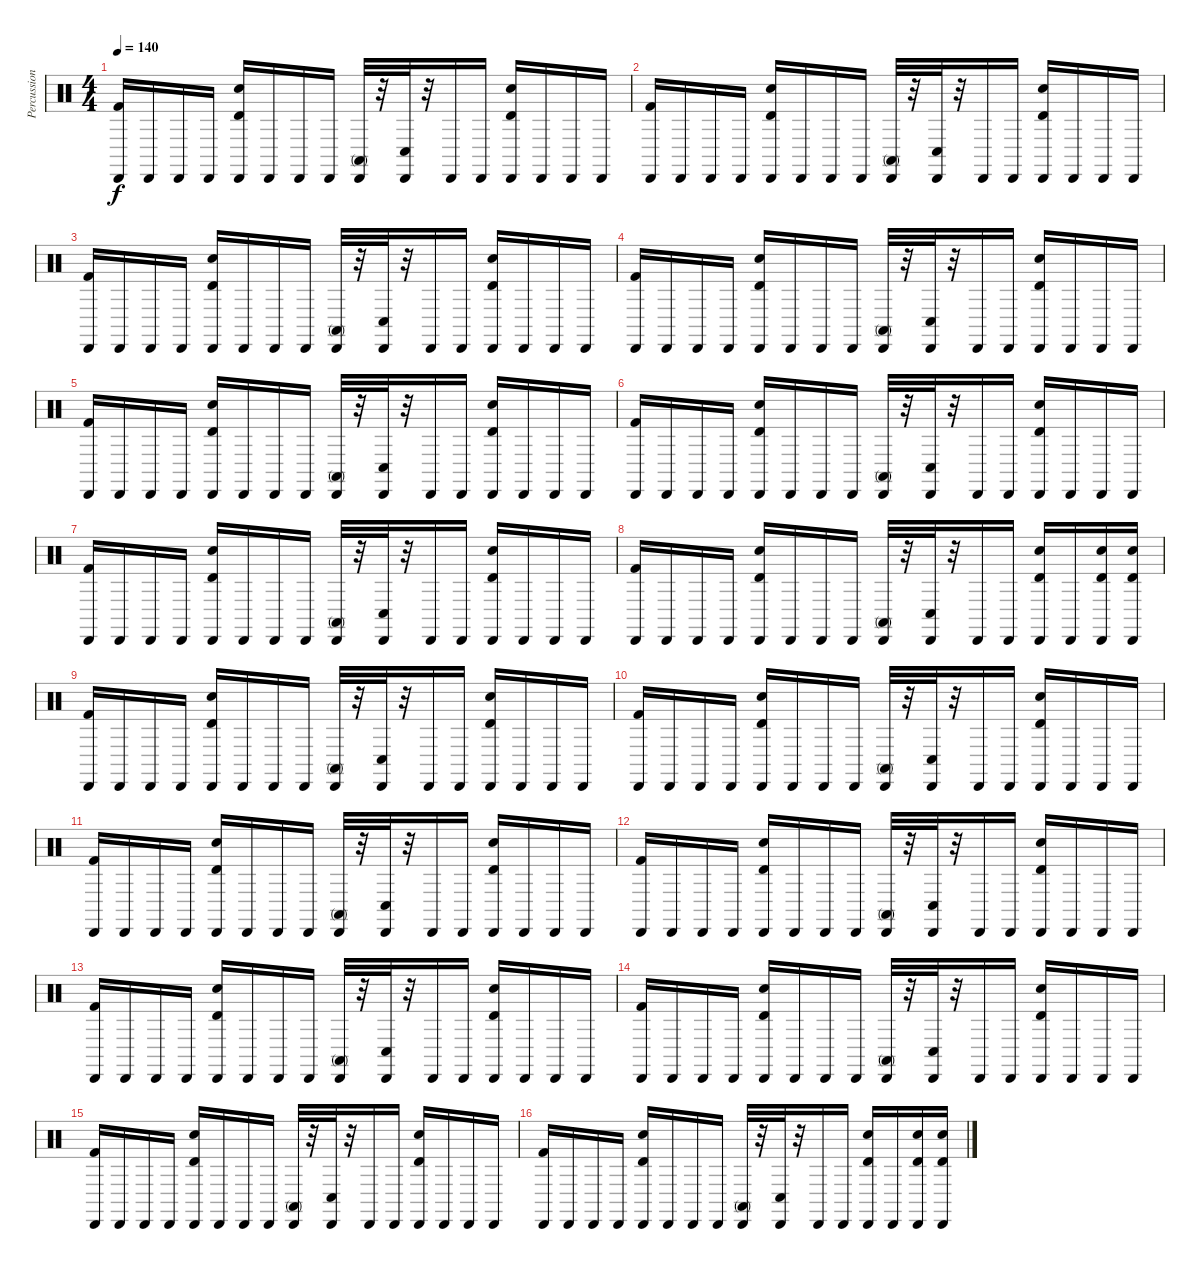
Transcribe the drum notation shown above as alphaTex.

\track ("Percussions" "Percussion") {instrument percussion}
\staff {score}
\articulation defaults
\ts (4 4)
\tempo 140
\clef neutral
\ks c
("Kick (hit) 2" "Cabasa (hit)").16{dy f} "Cabasa (hit)".16 "Cabasa (hit)".16 "Cabasa (hit)".16 ("Timbale high (hit)" "Electric Snare (hit)" "Cabasa (hit)").16 "Cabasa (hit)".16 "Cabasa (hit)".16 "Cabasa (hit)".16 ("Conga high (mute)" "Cabasa (hit)").32 r.32 ("Conga low (hit)" "Cabasa (hit)").32 r.32 "Cabasa (hit)".16 "Cabasa (hit)".16 ("Electric Snare (hit)" "Timbale high (hit)" "Cabasa (hit)").16 "Cabasa (hit)".16 "Cabasa (hit)".16 "Cabasa (hit)".16 |
("Kick (hit) 2" "Cabasa (hit)").16 "Cabasa (hit)".16 "Cabasa (hit)".16 "Cabasa (hit)".16 ("Timbale high (hit)" "Electric Snare (hit)" "Cabasa (hit)").16 "Cabasa (hit)".16 "Cabasa (hit)".16 "Cabasa (hit)".16 ("Conga high (mute)" "Cabasa (hit)").32 r.32 ("Conga low (hit)" "Cabasa (hit)").32 r.32 "Cabasa (hit)".16 "Cabasa (hit)".16 ("Electric Snare (hit)" "Timbale high (hit)" "Cabasa (hit)").16 "Cabasa (hit)".16 "Cabasa (hit)".16 "Cabasa (hit)".16 |
("Kick (hit) 2" "Cabasa (hit)").16 "Cabasa (hit)".16 "Cabasa (hit)".16 "Cabasa (hit)".16 ("Timbale high (hit)" "Electric Snare (hit)" "Cabasa (hit)").16 "Cabasa (hit)".16 "Cabasa (hit)".16 "Cabasa (hit)".16 ("Conga high (mute)" "Cabasa (hit)").32 r.32 ("Conga low (hit)" "Cabasa (hit)").32 r.32 "Cabasa (hit)".16 "Cabasa (hit)".16 ("Electric Snare (hit)" "Timbale high (hit)" "Cabasa (hit)").16 "Cabasa (hit)".16 "Cabasa (hit)".16 "Cabasa (hit)".16 |
("Kick (hit) 2" "Cabasa (hit)").16 "Cabasa (hit)".16 "Cabasa (hit)".16 "Cabasa (hit)".16 ("Timbale high (hit)" "Electric Snare (hit)" "Cabasa (hit)").16 "Cabasa (hit)".16 "Cabasa (hit)".16 "Cabasa (hit)".16 ("Conga high (mute)" "Cabasa (hit)").32 r.32 ("Conga low (hit)" "Cabasa (hit)").32 r.32 "Cabasa (hit)".16 "Cabasa (hit)".16 ("Electric Snare (hit)" "Timbale high (hit)" "Cabasa (hit)").16 "Cabasa (hit)".16 "Cabasa (hit)".16 "Cabasa (hit)".16 |
("Kick (hit) 2" "Cabasa (hit)").16 "Cabasa (hit)".16 "Cabasa (hit)".16 "Cabasa (hit)".16 ("Timbale high (hit)" "Electric Snare (hit)" "Cabasa (hit)").16 "Cabasa (hit)".16 "Cabasa (hit)".16 "Cabasa (hit)".16 ("Conga high (mute)" "Cabasa (hit)").32 r.32 ("Conga low (hit)" "Cabasa (hit)").32 r.32 "Cabasa (hit)".16 "Cabasa (hit)".16 ("Electric Snare (hit)" "Timbale high (hit)" "Cabasa (hit)").16 "Cabasa (hit)".16 "Cabasa (hit)".16 "Cabasa (hit)".16 |
("Kick (hit) 2" "Cabasa (hit)").16 "Cabasa (hit)".16 "Cabasa (hit)".16 "Cabasa (hit)".16 ("Timbale high (hit)" "Electric Snare (hit)" "Cabasa (hit)").16 "Cabasa (hit)".16 "Cabasa (hit)".16 "Cabasa (hit)".16 ("Conga high (mute)" "Cabasa (hit)").32 r.32 ("Conga low (hit)" "Cabasa (hit)").32 r.32 "Cabasa (hit)".16 "Cabasa (hit)".16 ("Electric Snare (hit)" "Timbale high (hit)" "Cabasa (hit)").16 "Cabasa (hit)".16 "Cabasa (hit)".16 "Cabasa (hit)".16 |
("Kick (hit) 2" "Cabasa (hit)").16 "Cabasa (hit)".16 "Cabasa (hit)".16 "Cabasa (hit)".16 ("Timbale high (hit)" "Electric Snare (hit)" "Cabasa (hit)").16 "Cabasa (hit)".16 "Cabasa (hit)".16 "Cabasa (hit)".16 ("Conga high (mute)" "Cabasa (hit)").32 r.32 ("Conga low (hit)" "Cabasa (hit)").32 r.32 "Cabasa (hit)".16 "Cabasa (hit)".16 ("Electric Snare (hit)" "Timbale high (hit)" "Cabasa (hit)").16 "Cabasa (hit)".16 "Cabasa (hit)".16 "Cabasa (hit)".16 |
("Kick (hit) 2" "Cabasa (hit)").16 "Cabasa (hit)".16 "Cabasa (hit)".16 "Cabasa (hit)".16 ("Timbale high (hit)" "Electric Snare (hit)" "Cabasa (hit)").16 "Cabasa (hit)".16 "Cabasa (hit)".16 "Cabasa (hit)".16 ("Conga high (mute)" "Cabasa (hit)").32 r.32 ("Conga low (hit)" "Cabasa (hit)").32 r.32 "Cabasa (hit)".16 "Cabasa (hit)".16 ("Electric Snare (hit)" "Timbale high (hit)" "Cabasa (hit)").16 "Cabasa (hit)".16 ("Timbale high (hit)" "Electric Snare (hit)" "Cabasa (hit)").16 ("Timbale high (hit)" "Electric Snare (hit)" "Cabasa (hit)").16 |
("Kick (hit) 2" "Cabasa (hit)").16 "Cabasa (hit)".16 "Cabasa (hit)".16 "Cabasa (hit)".16 ("Timbale high (hit)" "Electric Snare (hit)" "Cabasa (hit)").16 "Cabasa (hit)".16 "Cabasa (hit)".16 "Cabasa (hit)".16 ("Conga high (mute)" "Cabasa (hit)").32 r.32 ("Conga low (hit)" "Cabasa (hit)").32 r.32 "Cabasa (hit)".16 "Cabasa (hit)".16 ("Electric Snare (hit)" "Timbale high (hit)" "Cabasa (hit)").16 "Cabasa (hit)".16 "Cabasa (hit)".16 "Cabasa (hit)".16 |
("Kick (hit) 2" "Cabasa (hit)").16 "Cabasa (hit)".16 "Cabasa (hit)".16 "Cabasa (hit)".16 ("Timbale high (hit)" "Electric Snare (hit)" "Cabasa (hit)").16 "Cabasa (hit)".16 "Cabasa (hit)".16 "Cabasa (hit)".16 ("Conga high (mute)" "Cabasa (hit)").32 r.32 ("Conga low (hit)" "Cabasa (hit)").32 r.32 "Cabasa (hit)".16 "Cabasa (hit)".16 ("Electric Snare (hit)" "Timbale high (hit)" "Cabasa (hit)").16 "Cabasa (hit)".16 "Cabasa (hit)".16 "Cabasa (hit)".16 |
("Kick (hit) 2" "Cabasa (hit)").16 "Cabasa (hit)".16 "Cabasa (hit)".16 "Cabasa (hit)".16 ("Timbale high (hit)" "Electric Snare (hit)" "Cabasa (hit)").16 "Cabasa (hit)".16 "Cabasa (hit)".16 "Cabasa (hit)".16 ("Conga high (mute)" "Cabasa (hit)").32 r.32 ("Conga low (hit)" "Cabasa (hit)").32 r.32 "Cabasa (hit)".16 "Cabasa (hit)".16 ("Electric Snare (hit)" "Timbale high (hit)" "Cabasa (hit)").16 "Cabasa (hit)".16 "Cabasa (hit)".16 "Cabasa (hit)".16 |
("Kick (hit) 2" "Cabasa (hit)").16 "Cabasa (hit)".16 "Cabasa (hit)".16 "Cabasa (hit)".16 ("Timbale high (hit)" "Electric Snare (hit)" "Cabasa (hit)").16 "Cabasa (hit)".16 "Cabasa (hit)".16 "Cabasa (hit)".16 ("Conga high (mute)" "Cabasa (hit)").32 r.32 ("Conga low (hit)" "Cabasa (hit)").32 r.32 "Cabasa (hit)".16 "Cabasa (hit)".16 ("Electric Snare (hit)" "Timbale high (hit)" "Cabasa (hit)").16 "Cabasa (hit)".16 "Cabasa (hit)".16 "Cabasa (hit)".16 |
("Kick (hit) 2" "Cabasa (hit)").16 "Cabasa (hit)".16 "Cabasa (hit)".16 "Cabasa (hit)".16 ("Timbale high (hit)" "Electric Snare (hit)" "Cabasa (hit)").16 "Cabasa (hit)".16 "Cabasa (hit)".16 "Cabasa (hit)".16 ("Conga high (mute)" "Cabasa (hit)").32 r.32 ("Conga low (hit)" "Cabasa (hit)").32 r.32 "Cabasa (hit)".16 "Cabasa (hit)".16 ("Electric Snare (hit)" "Timbale high (hit)" "Cabasa (hit)").16 "Cabasa (hit)".16 "Cabasa (hit)".16 "Cabasa (hit)".16 |
("Kick (hit) 2" "Cabasa (hit)").16 "Cabasa (hit)".16 "Cabasa (hit)".16 "Cabasa (hit)".16 ("Timbale high (hit)" "Electric Snare (hit)" "Cabasa (hit)").16 "Cabasa (hit)".16 "Cabasa (hit)".16 "Cabasa (hit)".16 ("Conga high (mute)" "Cabasa (hit)").32 r.32 ("Conga low (hit)" "Cabasa (hit)").32 r.32 "Cabasa (hit)".16 "Cabasa (hit)".16 ("Electric Snare (hit)" "Timbale high (hit)" "Cabasa (hit)").16 "Cabasa (hit)".16 "Cabasa (hit)".16 "Cabasa (hit)".16 |
("Kick (hit) 2" "Cabasa (hit)").16 "Cabasa (hit)".16 "Cabasa (hit)".16 "Cabasa (hit)".16 ("Timbale high (hit)" "Electric Snare (hit)" "Cabasa (hit)").16 "Cabasa (hit)".16 "Cabasa (hit)".16 "Cabasa (hit)".16 ("Conga high (mute)" "Cabasa (hit)").32 r.32 ("Conga low (hit)" "Cabasa (hit)").32 r.32 "Cabasa (hit)".16 "Cabasa (hit)".16 ("Electric Snare (hit)" "Timbale high (hit)" "Cabasa (hit)").16 "Cabasa (hit)".16 "Cabasa (hit)".16 "Cabasa (hit)".16 |
("Kick (hit) 2" "Cabasa (hit)").16 "Cabasa (hit)".16 "Cabasa (hit)".16 "Cabasa (hit)".16 ("Timbale high (hit)" "Electric Snare (hit)" "Cabasa (hit)").16 "Cabasa (hit)".16 "Cabasa (hit)".16 "Cabasa (hit)".16 ("Conga high (mute)" "Cabasa (hit)").32 r.32 ("Conga low (hit)" "Cabasa (hit)").32 r.32 "Cabasa (hit)".16 "Cabasa (hit)".16 ("Electric Snare (hit)" "Timbale high (hit)" "Cabasa (hit)").16 "Cabasa (hit)".16 ("Timbale high (hit)" "Electric Snare (hit)" "Cabasa (hit)").16 ("Timbale high (hit)" "Electric Snare (hit)" "Cabasa (hit)").16
